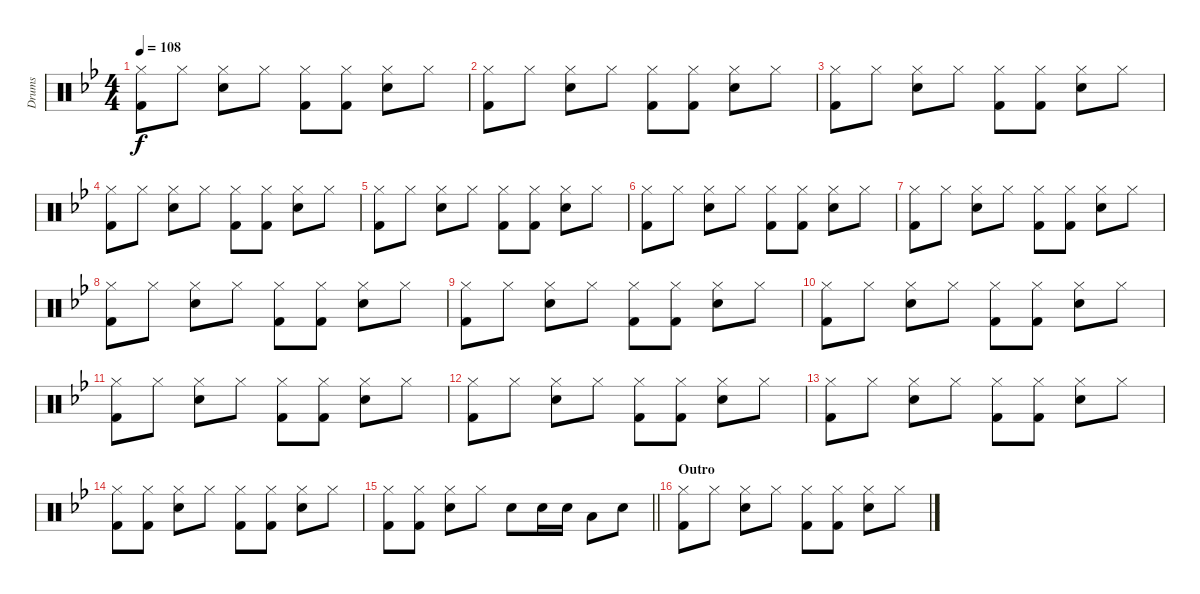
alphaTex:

\track ("Drums" "Drums") {instrument percussion}
\staff {score}
\articulation defaults
\ts (4 4)
\tempo 108
\clef neutral
\ks bb
("Hi-Hat (closed)" "Kick (hit) 2").8{dy f} "Hi-Hat (closed)".8 ("Hi-Hat (closed)" "Snare (hit) 2").8 "Hi-Hat (closed)".8 ("Hi-Hat (closed)" "Kick (hit) 2").8 ("Hi-Hat (closed)" "Kick (hit) 2").8 ("Hi-Hat (closed)" "Snare (hit) 2").8 "Hi-Hat (closed)".8 |
("Hi-Hat (closed)" "Kick (hit) 2").8 "Hi-Hat (closed)".8 ("Hi-Hat (closed)" "Snare (hit) 2").8 "Hi-Hat (closed)".8 ("Hi-Hat (closed)" "Kick (hit) 2").8 ("Hi-Hat (closed)" "Kick (hit) 2").8 ("Hi-Hat (closed)" "Snare (hit) 2").8 "Hi-Hat (closed)".8 |
("Hi-Hat (closed)" "Kick (hit) 2").8 "Hi-Hat (closed)".8 ("Hi-Hat (closed)" "Snare (hit) 2").8 "Hi-Hat (closed)".8 ("Hi-Hat (closed)" "Kick (hit) 2").8 ("Hi-Hat (closed)" "Kick (hit) 2").8 ("Hi-Hat (closed)" "Snare (hit) 2").8 "Hi-Hat (closed)".8 |
("Hi-Hat (closed)" "Kick (hit) 2").8 "Hi-Hat (closed)".8 ("Hi-Hat (closed)" "Snare (hit) 2").8 "Hi-Hat (closed)".8 ("Hi-Hat (closed)" "Kick (hit) 2").8 ("Hi-Hat (closed)" "Kick (hit) 2").8 ("Hi-Hat (closed)" "Snare (hit) 2").8 "Hi-Hat (closed)".8 |
("Hi-Hat (closed)" "Kick (hit) 2").8 "Hi-Hat (closed)".8 ("Hi-Hat (closed)" "Snare (hit) 2").8 "Hi-Hat (closed)".8 ("Hi-Hat (closed)" "Kick (hit) 2").8 ("Hi-Hat (closed)" "Kick (hit) 2").8 ("Hi-Hat (closed)" "Snare (hit) 2").8 "Hi-Hat (closed)".8 |
("Hi-Hat (closed)" "Kick (hit) 2").8 "Hi-Hat (closed)".8 ("Hi-Hat (closed)" "Snare (hit) 2").8 "Hi-Hat (closed)".8 ("Hi-Hat (closed)" "Kick (hit) 2").8 ("Hi-Hat (closed)" "Kick (hit) 2").8 ("Hi-Hat (closed)" "Snare (hit) 2").8 "Hi-Hat (closed)".8 |
("Hi-Hat (closed)" "Kick (hit) 2").8 "Hi-Hat (closed)".8 ("Hi-Hat (closed)" "Snare (hit) 2").8 "Hi-Hat (closed)".8 ("Hi-Hat (closed)" "Kick (hit) 2").8 ("Hi-Hat (closed)" "Kick (hit) 2").8 ("Hi-Hat (closed)" "Snare (hit) 2").8 "Hi-Hat (closed)".8 |
("Hi-Hat (closed)" "Kick (hit) 2").8 "Hi-Hat (closed)".8 ("Hi-Hat (closed)" "Snare (hit) 2").8 "Hi-Hat (closed)".8 ("Hi-Hat (closed)" "Kick (hit) 2").8 ("Hi-Hat (closed)" "Kick (hit) 2").8 ("Hi-Hat (closed)" "Snare (hit) 2").8 "Hi-Hat (closed)".8 |
("Hi-Hat (closed)" "Kick (hit) 2").8 "Hi-Hat (closed)".8 ("Hi-Hat (closed)" "Snare (hit) 2").8 "Hi-Hat (closed)".8 ("Hi-Hat (closed)" "Kick (hit) 2").8 ("Hi-Hat (closed)" "Kick (hit) 2").8 ("Hi-Hat (closed)" "Snare (hit) 2").8 "Hi-Hat (closed)".8 |
("Hi-Hat (closed)" "Kick (hit) 2").8 "Hi-Hat (closed)".8 ("Hi-Hat (closed)" "Snare (hit) 2").8 "Hi-Hat (closed)".8 ("Hi-Hat (closed)" "Kick (hit) 2").8 ("Hi-Hat (closed)" "Kick (hit) 2").8 ("Hi-Hat (closed)" "Snare (hit) 2").8 "Hi-Hat (closed)".8 |
("Hi-Hat (closed)" "Kick (hit) 2").8 "Hi-Hat (closed)".8 ("Hi-Hat (closed)" "Snare (hit) 2").8 "Hi-Hat (closed)".8 ("Hi-Hat (closed)" "Kick (hit) 2").8 ("Hi-Hat (closed)" "Kick (hit) 2").8 ("Hi-Hat (closed)" "Snare (hit) 2").8 "Hi-Hat (closed)".8 |
("Hi-Hat (closed)" "Kick (hit) 2").8 "Hi-Hat (closed)".8 ("Hi-Hat (closed)" "Snare (hit) 2").8 "Hi-Hat (closed)".8 ("Hi-Hat (closed)" "Kick (hit) 2").8 ("Hi-Hat (closed)" "Kick (hit) 2").8 ("Hi-Hat (closed)" "Snare (hit) 2").8 "Hi-Hat (closed)".8 |
("Hi-Hat (closed)" "Kick (hit) 2").8 "Hi-Hat (closed)".8 ("Hi-Hat (closed)" "Snare (hit) 2").8 "Hi-Hat (closed)".8 ("Hi-Hat (closed)" "Kick (hit) 2").8 ("Hi-Hat (closed)" "Kick (hit) 2").8 ("Hi-Hat (closed)" "Snare (hit) 2").8 "Hi-Hat (closed)".8 |
("Hi-Hat (closed)" "Kick (hit) 2").8 ("Hi-Hat (closed)" "Kick (hit) 2").8 ("Hi-Hat (closed)" "Snare (hit) 2").8 "Hi-Hat (closed)".8 ("Hi-Hat (closed)" "Kick (hit) 2").8 ("Hi-Hat (closed)" "Kick (hit) 2").8 ("Hi-Hat (closed)" "Snare (hit) 2").8 "Hi-Hat (closed)".8 |
\barLineRight lightlight
("Hi-Hat (closed)" "Kick (hit) 2").8 ("Hi-Hat (closed)" "Kick (hit) 2").8 ("Hi-Hat (closed)" "Snare (hit) 2").8 "Hi-Hat (closed)".8 "Snare (hit) 2".8 "Snare (hit) 2".16 "Snare (hit) 2".16 "Low Tom (hit)".8 "Snare (hit) 2".8 |
\section ("" "Outro")
("Hi-Hat (closed)" "Kick (hit) 2").8 "Hi-Hat (closed)".8 ("Hi-Hat (closed)" "Snare (hit) 2").8 "Hi-Hat (closed)".8 ("Hi-Hat (closed)" "Kick (hit) 2").8 ("Hi-Hat (closed)" "Kick (hit) 2").8 ("Hi-Hat (closed)" "Snare (hit) 2").8 "Hi-Hat (closed)".8
